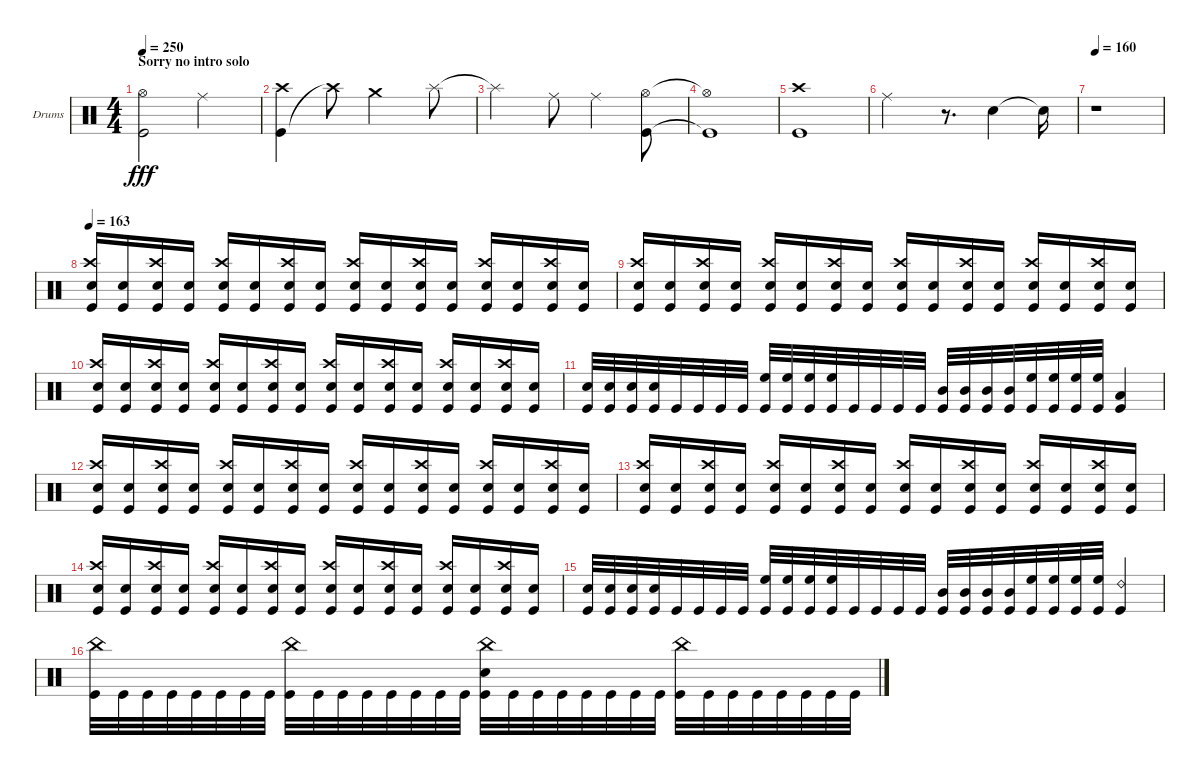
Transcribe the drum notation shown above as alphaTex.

\defaultSystemsLayout 4
\bracketExtendMode groupsimilarinstruments
\firstSystemTrackNameOrientation horizontal
\otherSystemsTrackNameOrientation horizontal
\track ("Drumkit" "Drums") {instrument percussion}
\staff {score}
\articulation defaults
\ts (4 4)
\section ("" "Sorry no intro solo ")
\tempo 250
\clef neutral
\ks c
("Kick (hit)" "Hi-Hat (open)").2{dy fff} "Ride (middle)".2 |
\section ("" "")
("Kick (hit)" "Crash high (hit)").4 "Crash high (hit)"{t}.8 "Crash medium (hit)".2 "Splash (hit)".8 |
"Splash (hit)"{t}.2 "Ride (middle)".8 "Ride (middle)".4 ("Kick (hit)" "Hi-Hat (open)").8 |
("Kick (hit)"{t} "Hi-Hat (open)"{t}).1 |
("Kick (hit)" "Crash high (hit)").1 |
"Ride (middle)".2 r.8{d} "Snare (hit) 2".4 "Snare (hit) 2"{t}.16 |
\tempo 160
r.1 |
\tempo 163
("Kick (hit)" "Snare (hit) 2" "Crash high (hit)").16 ("Snare (hit) 2" "Kick (hit)").16 ("Snare (hit) 2" "Kick (hit)" "Crash high (hit)").16 ("Snare (hit) 2" "Kick (hit)").16 ("Snare (hit) 2" "Kick (hit)" "Crash high (hit)").16 ("Snare (hit) 2" "Kick (hit)").16 ("Snare (hit) 2" "Kick (hit)" "Crash high (hit)").16 ("Snare (hit) 2" "Kick (hit)").16 ("Snare (hit) 2" "Kick (hit)" "Crash high (hit)").16 ("Snare (hit) 2" "Kick (hit)").16 ("Snare (hit) 2" "Kick (hit)" "Crash high (hit)").16 ("Snare (hit) 2" "Kick (hit)").16 ("Snare (hit) 2" "Kick (hit)" "Crash high (hit)").16 ("Snare (hit) 2" "Kick (hit)").16 ("Snare (hit) 2" "Kick (hit)" "Crash high (hit)").16 ("Snare (hit) 2" "Kick (hit)").16 |
("Kick (hit)" "Snare (hit) 2" "Crash high (hit)").16 ("Snare (hit) 2" "Kick (hit)").16 ("Snare (hit) 2" "Kick (hit)" "Crash high (hit)").16 ("Snare (hit) 2" "Kick (hit)").16 ("Snare (hit) 2" "Kick (hit)" "Crash high (hit)").16 ("Snare (hit) 2" "Kick (hit)").16 ("Snare (hit) 2" "Kick (hit)" "Crash high (hit)").16 ("Snare (hit) 2" "Kick (hit)").16 ("Snare (hit) 2" "Kick (hit)" "Crash high (hit)").16 ("Snare (hit) 2" "Kick (hit)").16 ("Snare (hit) 2" "Kick (hit)" "Crash high (hit)").16 ("Snare (hit) 2" "Kick (hit)").16 ("Snare (hit) 2" "Kick (hit)" "Crash high (hit)").16 ("Snare (hit) 2" "Kick (hit)").16 ("Snare (hit) 2" "Kick (hit)" "Crash high (hit)").16 ("Snare (hit) 2" "Kick (hit)").16 |
("Kick (hit)" "Snare (hit) 2" "Crash high (hit)").16 ("Snare (hit) 2" "Kick (hit)").16 ("Snare (hit) 2" "Kick (hit)" "Crash high (hit)").16 ("Snare (hit) 2" "Kick (hit)").16 ("Snare (hit) 2" "Kick (hit)" "Crash high (hit)").16 ("Snare (hit) 2" "Kick (hit)").16 ("Snare (hit) 2" "Kick (hit)" "Crash high (hit)").16 ("Snare (hit) 2" "Kick (hit)").16 ("Snare (hit) 2" "Kick (hit)" "Crash high (hit)").16 ("Snare (hit) 2" "Kick (hit)").16 ("Snare (hit) 2" "Kick (hit)" "Crash high (hit)").16 ("Snare (hit) 2" "Kick (hit)").16 ("Snare (hit) 2" "Kick (hit)" "Crash high (hit)").16 ("Snare (hit) 2" "Kick (hit)").16 ("Snare (hit) 2" "Kick (hit)" "Crash high (hit)").16 ("Snare (hit) 2" "Kick (hit)").16 |
("Kick (hit)" "Snare (hit) 2").32 ("Kick (hit)" "Snare (hit) 2").32 ("Kick (hit)" "Snare (hit) 2").32 ("Kick (hit)" "Snare (hit) 2").32 "Kick (hit)".32 "Kick (hit)".32 "Kick (hit)".32 "Kick (hit)".32 ("Kick (hit)" "High Floor Tom (hit)").32 ("Kick (hit)" "High Floor Tom (hit)").32 ("Kick (hit)" "High Floor Tom (hit)").32 ("Kick (hit)" "High Floor Tom (hit)").32 "Kick (hit)".32 "Kick (hit)".32 "Kick (hit)".32 "Kick (hit)".32 ("Kick (hit)" "Mid Tom (hit)").32 ("Kick (hit)" "Mid Tom (hit)").32 ("Kick (hit)" "Mid Tom (hit)").32 ("Kick (hit)" "Mid Tom (hit)").32 ("Kick (hit)" "High Floor Tom (hit)").32 ("Kick (hit)" "High Floor Tom (hit)").32 ("Kick (hit)" "High Floor Tom (hit)").32 ("Kick (hit)" "High Floor Tom (hit)").32 ("Kick (hit)" "Low Tom (hit)").4 |
("Kick (hit)" "Snare (hit) 2" "Crash high (hit)").16 ("Snare (hit) 2" "Kick (hit)").16 ("Snare (hit) 2" "Kick (hit)" "Crash high (hit)").16 ("Snare (hit) 2" "Kick (hit)").16 ("Snare (hit) 2" "Kick (hit)" "Crash high (hit)").16 ("Snare (hit) 2" "Kick (hit)").16 ("Snare (hit) 2" "Kick (hit)" "Crash high (hit)").16 ("Snare (hit) 2" "Kick (hit)").16 ("Snare (hit) 2" "Kick (hit)" "Crash high (hit)").16 ("Snare (hit) 2" "Kick (hit)").16 ("Snare (hit) 2" "Kick (hit)" "Crash high (hit)").16 ("Snare (hit) 2" "Kick (hit)").16 ("Snare (hit) 2" "Kick (hit)" "Crash high (hit)").16 ("Snare (hit) 2" "Kick (hit)").16 ("Snare (hit) 2" "Kick (hit)" "Crash high (hit)").16 ("Snare (hit) 2" "Kick (hit)").16 |
("Kick (hit)" "Snare (hit) 2" "Crash high (hit)").16 ("Snare (hit) 2" "Kick (hit)").16 ("Snare (hit) 2" "Kick (hit)" "Crash high (hit)").16 ("Snare (hit) 2" "Kick (hit)").16 ("Snare (hit) 2" "Kick (hit)" "Crash high (hit)").16 ("Snare (hit) 2" "Kick (hit)").16 ("Snare (hit) 2" "Kick (hit)" "Crash high (hit)").16 ("Snare (hit) 2" "Kick (hit)").16 ("Snare (hit) 2" "Kick (hit)" "Crash high (hit)").16 ("Snare (hit) 2" "Kick (hit)").16 ("Snare (hit) 2" "Kick (hit)" "Crash high (hit)").16 ("Snare (hit) 2" "Kick (hit)").16 ("Snare (hit) 2" "Kick (hit)" "Crash high (hit)").16 ("Snare (hit) 2" "Kick (hit)").16 ("Snare (hit) 2" "Kick (hit)" "Crash high (hit)").16 ("Snare (hit) 2" "Kick (hit)").16 |
("Kick (hit)" "Snare (hit) 2" "Crash high (hit)").16 ("Snare (hit) 2" "Kick (hit)").16 ("Snare (hit) 2" "Kick (hit)" "Crash high (hit)").16 ("Snare (hit) 2" "Kick (hit)").16 ("Snare (hit) 2" "Kick (hit)" "Crash high (hit)").16 ("Snare (hit) 2" "Kick (hit)").16 ("Snare (hit) 2" "Kick (hit)" "Crash high (hit)").16 ("Snare (hit) 2" "Kick (hit)").16 ("Snare (hit) 2" "Kick (hit)" "Crash high (hit)").16 ("Snare (hit) 2" "Kick (hit)").16 ("Snare (hit) 2" "Kick (hit)" "Crash high (hit)").16 ("Snare (hit) 2" "Kick (hit)").16 ("Snare (hit) 2" "Kick (hit)" "Crash high (hit)").16 ("Snare (hit) 2" "Kick (hit)").16 ("Snare (hit) 2" "Kick (hit)" "Crash high (hit)").16 ("Snare (hit) 2" "Kick (hit)").16 |
("Kick (hit)" "Snare (hit) 2").32 ("Kick (hit)" "Snare (hit) 2").32 ("Kick (hit)" "Snare (hit) 2").32 ("Kick (hit)" "Snare (hit) 2").32 "Kick (hit)".32 "Kick (hit)".32 "Kick (hit)".32 "Kick (hit)".32 ("Kick (hit)" "High Floor Tom (hit)").32 ("Kick (hit)" "High Floor Tom (hit)").32 ("Kick (hit)" "High Floor Tom (hit)").32 ("Kick (hit)" "High Floor Tom (hit)").32 "Kick (hit)".32 "Kick (hit)".32 "Kick (hit)".32 "Kick (hit)".32 ("Kick (hit)" "Mid Tom (hit)").32 ("Kick (hit)" "Mid Tom (hit)").32 ("Kick (hit)" "Mid Tom (hit)").32 ("Kick (hit)" "Mid Tom (hit)").32 ("Kick (hit)" "High Floor Tom (hit)").32 ("Kick (hit)" "High Floor Tom (hit)").32 ("Kick (hit)" "High Floor Tom (hit)").32 ("Kick (hit)" "High Floor Tom (hit)").32 ("Kick (hit)" "Ride (bell) 2").4 |
("Kick (hit)" "China (hit)").32 "Kick (hit)".32 "Kick (hit)".32 "Kick (hit)".32 "Kick (hit)".32 "Kick (hit)".32 "Kick (hit)".32 "Kick (hit)".32 ("Kick (hit)" "China (hit)").32 "Kick (hit)".32 "Kick (hit)".32 "Kick (hit)".32 "Kick (hit)".32 "Kick (hit)".32 "Kick (hit)".32 "Kick (hit)".32 ("Kick (hit)" "China (hit)" "Snare (hit) 2").32 "Kick (hit)".32 "Kick (hit)".32 "Kick (hit)".32 "Kick (hit)".32 "Kick (hit)".32 "Kick (hit)".32 "Kick (hit)".32 ("Kick (hit)" "China (hit)").32 "Kick (hit)".32 "Kick (hit)".32 "Kick (hit)".32 "Kick (hit)".32 "Kick (hit)".32 "Kick (hit)".32 "Kick (hit)".32
